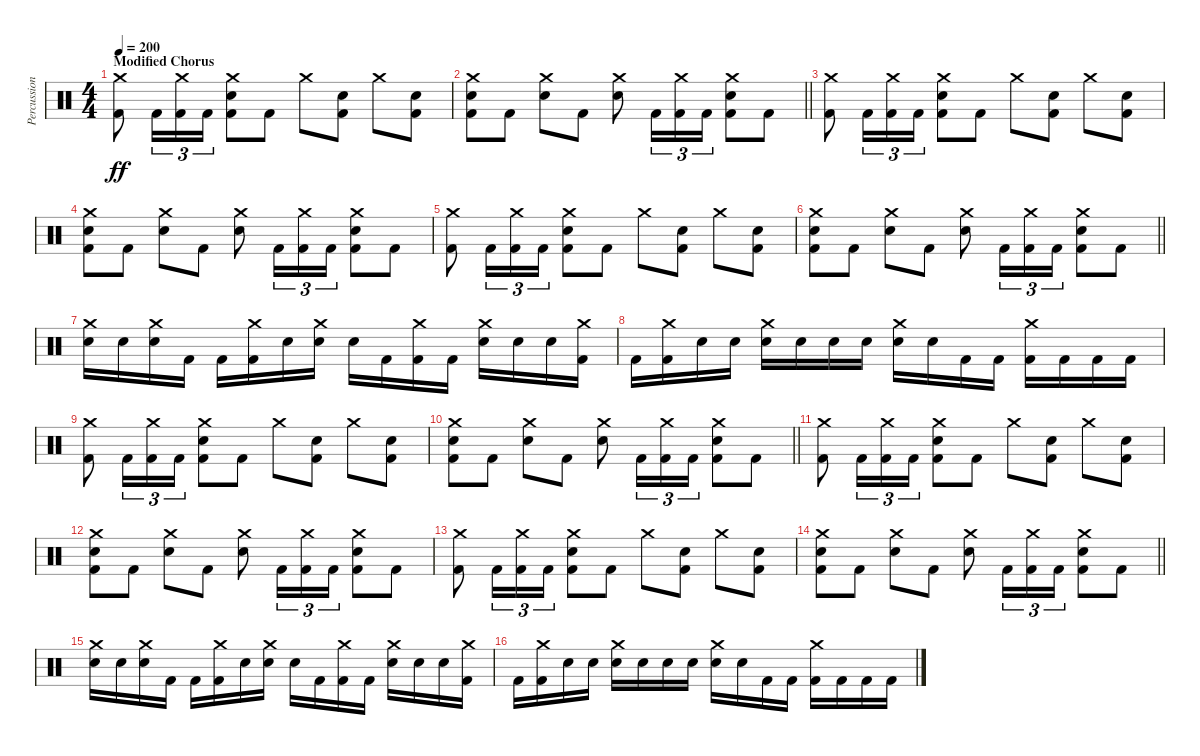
\track ("Percussion" "Percussion") {instrument percussion}
\staff {score}
\articulation defaults
\ts (4 4)
\section ("" "Modified Chorus")
\tempo 200
\clef neutral
\ks c
("Crash medium (hit)" "Kick (hit) 2").8{dy ff} "Kick (hit) 2".16{tu (3 2)} ("Crash medium (hit)" "Kick (hit) 2").16{tu (3 2)} "Kick (hit) 2".16{tu (3 2)} ("Crash medium (hit)" "Electric Snare (hit)" "Kick (hit) 2").8 "Kick (hit) 2".8 "Crash medium (hit)".8 ("Electric Snare (hit)" "Kick (hit) 2").8 "Crash medium (hit)".8 ("Electric Snare (hit)" "Kick (hit) 2").8 |
\barLineRight lightlight
("Crash medium (hit)" "Electric Snare (hit)" "Kick (hit) 2").8 "Kick (hit) 2".8 ("Crash medium (hit)" "Electric Snare (hit)").8 "Kick (hit) 2".8 ("Crash medium (hit)" "Electric Snare (hit)").8 "Kick (hit) 2".16{tu (3 2)} ("Crash medium (hit)" "Kick (hit) 2").16{tu (3 2)} "Kick (hit) 2".16{tu (3 2)} ("Crash medium (hit)" "Electric Snare (hit)" "Kick (hit) 2").8 "Kick (hit) 2".8 |
("Crash medium (hit)" "Kick (hit) 2").8 "Kick (hit) 2".16{tu (3 2)} ("Crash medium (hit)" "Kick (hit) 2").16{tu (3 2)} "Kick (hit) 2".16{tu (3 2)} ("Crash medium (hit)" "Electric Snare (hit)" "Kick (hit) 2").8 "Kick (hit) 2".8 "Crash medium (hit)".8 ("Electric Snare (hit)" "Kick (hit) 2").8 "Crash medium (hit)".8 ("Electric Snare (hit)" "Kick (hit) 2").8 |
("Crash medium (hit)" "Electric Snare (hit)" "Kick (hit) 2").8 "Kick (hit) 2".8 ("Crash medium (hit)" "Electric Snare (hit)").8 "Kick (hit) 2".8 ("Crash medium (hit)" "Electric Snare (hit)").8 "Kick (hit) 2".16{tu (3 2)} ("Crash medium (hit)" "Kick (hit) 2").16{tu (3 2)} "Kick (hit) 2".16{tu (3 2)} ("Crash medium (hit)" "Electric Snare (hit)" "Kick (hit) 2").8 "Kick (hit) 2".8 |
("Crash medium (hit)" "Kick (hit) 2").8 "Kick (hit) 2".16{tu (3 2)} ("Crash medium (hit)" "Kick (hit) 2").16{tu (3 2)} "Kick (hit) 2".16{tu (3 2)} ("Crash medium (hit)" "Electric Snare (hit)" "Kick (hit) 2").8 "Kick (hit) 2".8 "Crash medium (hit)".8 ("Electric Snare (hit)" "Kick (hit) 2").8 "Crash medium (hit)".8 ("Electric Snare (hit)" "Kick (hit) 2").8 |
\barLineRight lightlight
("Crash medium (hit)" "Electric Snare (hit)" "Kick (hit) 2").8 "Kick (hit) 2".8 ("Crash medium (hit)" "Electric Snare (hit)").8 "Kick (hit) 2".8 ("Crash medium (hit)" "Electric Snare (hit)").8 "Kick (hit) 2".16{tu (3 2)} ("Crash medium (hit)" "Kick (hit) 2").16{tu (3 2)} "Kick (hit) 2".16{tu (3 2)} ("Crash medium (hit)" "Electric Snare (hit)" "Kick (hit) 2").8 "Kick (hit) 2".8 |
("Crash medium (hit)" "Electric Snare (hit)").16 "Electric Snare (hit)".16 ("Crash medium (hit)" "Electric Snare (hit)").16 "Kick (hit) 2".16 "Kick (hit) 2".16 ("Crash medium (hit)" "Kick (hit) 2").16 "Electric Snare (hit)".16 ("Crash medium (hit)" "Electric Snare (hit)").16 "Electric Snare (hit)".16 "Kick (hit) 2".16 ("Crash medium (hit)" "Kick (hit) 2").16 "Kick (hit) 2".16 ("Crash medium (hit)" "Electric Snare (hit)").16 "Electric Snare (hit)".16 "Electric Snare (hit)".16 ("Crash medium (hit)" "Kick (hit) 2").16 |
"Kick (hit) 2".16 ("Crash medium (hit)" "Kick (hit) 2").16 "Electric Snare (hit)".16 "Electric Snare (hit)".16 ("Crash medium (hit)" "Electric Snare (hit)").16 "Electric Snare (hit)".16 "Electric Snare (hit)".16 "Electric Snare (hit)".16 ("Crash medium (hit)" "Electric Snare (hit)").16 "Electric Snare (hit)".16 "Kick (hit) 2".16 "Kick (hit) 2".16 ("Crash medium (hit)" "Kick (hit) 2").16 "Kick (hit) 2".16 "Kick (hit) 2".16 "Kick (hit) 2".16 |
("Crash medium (hit)" "Kick (hit) 2").8 "Kick (hit) 2".16{tu (3 2)} ("Crash medium (hit)" "Kick (hit) 2").16{tu (3 2)} "Kick (hit) 2".16{tu (3 2)} ("Crash medium (hit)" "Electric Snare (hit)" "Kick (hit) 2").8 "Kick (hit) 2".8 "Crash medium (hit)".8 ("Electric Snare (hit)" "Kick (hit) 2").8 "Crash medium (hit)".8 ("Electric Snare (hit)" "Kick (hit) 2").8 |
\barLineRight lightlight
("Crash medium (hit)" "Electric Snare (hit)" "Kick (hit) 2").8 "Kick (hit) 2".8 ("Crash medium (hit)" "Electric Snare (hit)").8 "Kick (hit) 2".8 ("Crash medium (hit)" "Electric Snare (hit)").8 "Kick (hit) 2".16{tu (3 2)} ("Crash medium (hit)" "Kick (hit) 2").16{tu (3 2)} "Kick (hit) 2".16{tu (3 2)} ("Crash medium (hit)" "Electric Snare (hit)" "Kick (hit) 2").8 "Kick (hit) 2".8 |
("Crash medium (hit)" "Kick (hit) 2").8 "Kick (hit) 2".16{tu (3 2)} ("Crash medium (hit)" "Kick (hit) 2").16{tu (3 2)} "Kick (hit) 2".16{tu (3 2)} ("Crash medium (hit)" "Electric Snare (hit)" "Kick (hit) 2").8 "Kick (hit) 2".8 "Crash medium (hit)".8 ("Electric Snare (hit)" "Kick (hit) 2").8 "Crash medium (hit)".8 ("Electric Snare (hit)" "Kick (hit) 2").8 |
("Crash medium (hit)" "Electric Snare (hit)" "Kick (hit) 2").8 "Kick (hit) 2".8 ("Crash medium (hit)" "Electric Snare (hit)").8 "Kick (hit) 2".8 ("Crash medium (hit)" "Electric Snare (hit)").8 "Kick (hit) 2".16{tu (3 2)} ("Crash medium (hit)" "Kick (hit) 2").16{tu (3 2)} "Kick (hit) 2".16{tu (3 2)} ("Crash medium (hit)" "Electric Snare (hit)" "Kick (hit) 2").8 "Kick (hit) 2".8 |
("Crash medium (hit)" "Kick (hit) 2").8 "Kick (hit) 2".16{tu (3 2)} ("Crash medium (hit)" "Kick (hit) 2").16{tu (3 2)} "Kick (hit) 2".16{tu (3 2)} ("Crash medium (hit)" "Electric Snare (hit)" "Kick (hit) 2").8 "Kick (hit) 2".8 "Crash medium (hit)".8 ("Electric Snare (hit)" "Kick (hit) 2").8 "Crash medium (hit)".8 ("Electric Snare (hit)" "Kick (hit) 2").8 |
\barLineRight lightlight
("Crash medium (hit)" "Electric Snare (hit)" "Kick (hit) 2").8 "Kick (hit) 2".8 ("Crash medium (hit)" "Electric Snare (hit)").8 "Kick (hit) 2".8 ("Crash medium (hit)" "Electric Snare (hit)").8 "Kick (hit) 2".16{tu (3 2)} ("Crash medium (hit)" "Kick (hit) 2").16{tu (3 2)} "Kick (hit) 2".16{tu (3 2)} ("Crash medium (hit)" "Electric Snare (hit)" "Kick (hit) 2").8 "Kick (hit) 2".8 |
("Crash medium (hit)" "Electric Snare (hit)").16 "Electric Snare (hit)".16 ("Crash medium (hit)" "Electric Snare (hit)").16 "Kick (hit) 2".16 "Kick (hit) 2".16 ("Crash medium (hit)" "Kick (hit) 2").16 "Electric Snare (hit)".16 ("Crash medium (hit)" "Electric Snare (hit)").16 "Electric Snare (hit)".16 "Kick (hit) 2".16 ("Crash medium (hit)" "Kick (hit) 2").16 "Kick (hit) 2".16 ("Crash medium (hit)" "Electric Snare (hit)").16 "Electric Snare (hit)".16 "Electric Snare (hit)".16 ("Crash medium (hit)" "Kick (hit) 2").16 |
"Kick (hit) 2".16 ("Crash medium (hit)" "Kick (hit) 2").16 "Electric Snare (hit)".16 "Electric Snare (hit)".16 ("Crash medium (hit)" "Electric Snare (hit)").16 "Electric Snare (hit)".16 "Electric Snare (hit)".16 "Electric Snare (hit)".16 ("Crash medium (hit)" "Electric Snare (hit)").16 "Electric Snare (hit)".16 "Kick (hit) 2".16 "Kick (hit) 2".16 ("Crash medium (hit)" "Kick (hit) 2").16 "Kick (hit) 2".16 "Kick (hit) 2".16 "Kick (hit) 2".16
